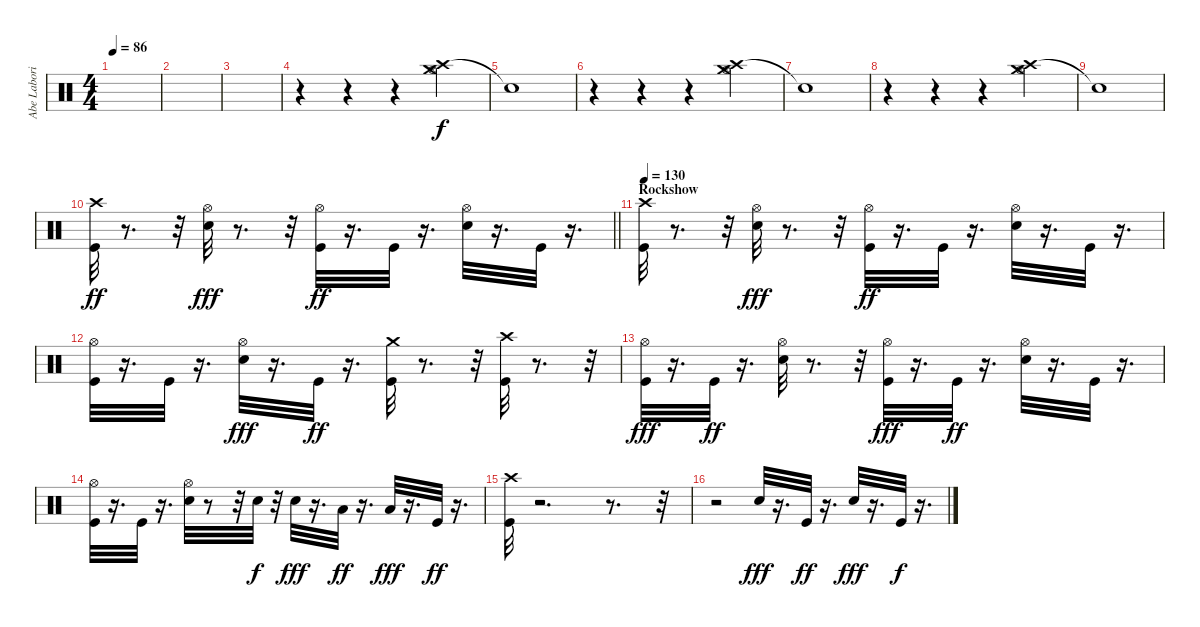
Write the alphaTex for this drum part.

\track ("Abe Laboriel, Jr." "Abe Labori") {instrument percussion}
\staff {score}
\articulation defaults
\ts (4 4)
\tempo 86
\clef neutral
\ks c
|
|
|
r.4 r.4 r.4 ("Crash high (hit)" "Hi-Hat (open)" "Crash medium (hit)").4{volume 13} |
"Snare (hit)"{t}.1 |
r.4{volume 1} r.4 r.4 ("Crash high (hit)" "Hi-Hat (open)" "Crash medium (hit)").4{volume 13} |
"Snare (hit)"{t}.1 |
r.4{volume 1} r.4 r.4 ("Crash high (hit)" "Hi-Hat (open)" "Crash medium (hit)").4{volume 13} |
"Snare (hit)"{t}.1 |
\barLineRight lightlight
("Crash high (hit)" "Kick (hit)").32{dy ff} r.8{d} r.32 ("Snare (hit) 2" "Hi-Hat (open)").32{dy fff} r.8{d} r.32 ("Kick (hit)" "Hi-Hat (open)").32{dy ff} r.16{d} "Kick (hit)".32 r.16{d} ("Hi-Hat (open)" "Snare (hit) 2").32 r.16{d} "Kick (hit)".32 r.16{d} |
\section ("" "Rockshow")
\tempo 130
("Crash high (hit)" "Kick (hit)").32 r.8{d} r.32 ("Snare (hit) 2" "Hi-Hat (open)").32{dy fff} r.8{d} r.32 ("Kick (hit)" "Hi-Hat (open)").32{dy ff} r.16{d} "Kick (hit)".32 r.16{d} ("Hi-Hat (open)" "Snare (hit) 2").32 r.16{d} "Kick (hit)".32 r.16{d} |
("Kick (hit)" "Hi-Hat (open)").32 r.16{d} "Kick (hit)".32 r.16{d} ("Snare (hit) 2" "Hi-Hat (open)").32{dy fff} r.16{d} "Kick (hit)".32{dy ff} r.16{d} ("Crash medium (hit)" "Kick (hit)").32 r.8{d} r.32 ("Kick (hit)" "Crash high (hit)").32 r.8{d} r.32 |
("Kick (hit)" "Hi-Hat (open)").32{dy fff} r.16{d} "Kick (hit)".32{dy ff} r.16{d} ("Hi-Hat (open)" "Snare (hit) 2").32 r.8{d} r.32 ("Kick (hit)" "Hi-Hat (open)").32{dy fff} r.16{d} "Kick (hit)".32{dy ff} r.16{d} ("Hi-Hat (open)" "Snare (hit) 2").32 r.16{d} "Kick (hit)".32 r.16{d} |
("Kick (hit)" "Hi-Hat (open)").32 r.16{d} "Kick (hit)".32 r.16{d} ("Hi-Hat (open)" "Snare (hit) 2").32 r.8 r.32 "Snare (hit) 2".32{dy f} r.32 "Snare (hit) 2".32{dy fff} r.16{d} "Low Tom (hit)".32{dy ff} r.16{d} "Low Tom (hit)".32{dy fff} r.16{d} "Kick (hit)".32{dy ff} r.16{d} |
("Crash high (hit)" "Kick (hit)").32 r.2{d} r.8{d} r.32 |
r.2 "Snare (hit) 2".32{dy fff} r.16{d} "Kick (hit)".32{dy ff} r.16{d} "Snare (hit) 2".32{dy fff} r.16{d} "Kick (hit)".32{dy f} r.16{d}
